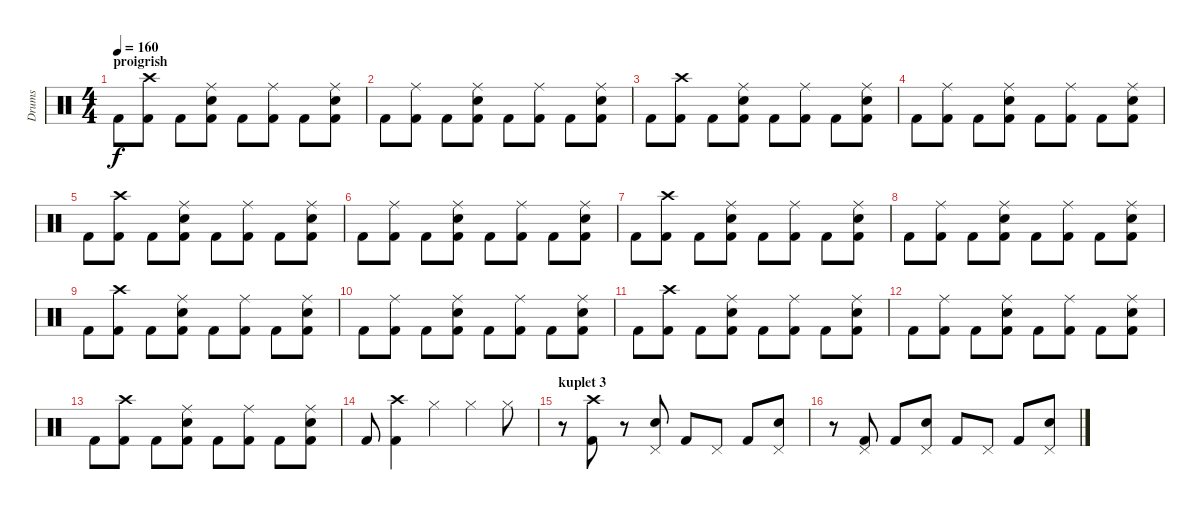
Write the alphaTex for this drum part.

\track ("Drums" "Drums") {instrument percussion}
\staff {score}
\articulation defaults
\ts (4 4)
\section ("" "proigrish")
\tempo 160
\clef neutral
\ks c "Kick (hit) 2".8{dy f}
("Kick (hit) 2" "Crash high (hit)").8 "Kick (hit) 2".8 ("Snare (hit) 2" "Kick (hit) 2" "Ride (middle)").8 "Kick (hit) 2".8 ("Kick (hit) 2" "Ride (middle)").8 "Kick (hit) 2".8 ("Snare (hit) 2" "Kick (hit) 2" "Ride (middle)").8 |
"Kick (hit) 2".8 ("Kick (hit) 2" "Ride (middle)").8 "Kick (hit) 2".8 ("Snare (hit) 2" "Kick (hit) 2" "Ride (middle)").8 "Kick (hit) 2".8 ("Kick (hit) 2" "Ride (middle)").8 "Kick (hit) 2".8 ("Snare (hit) 2" "Kick (hit) 2" "Ride (middle)").8 |
"Kick (hit) 2".8 ("Kick (hit) 2" "Crash high (hit)").8 "Kick (hit) 2".8 ("Snare (hit) 2" "Kick (hit) 2" "Ride (middle)").8 "Kick (hit) 2".8 ("Kick (hit) 2" "Ride (middle)").8 "Kick (hit) 2".8 ("Snare (hit) 2" "Kick (hit) 2" "Ride (middle)").8 |
"Kick (hit) 2".8 ("Kick (hit) 2" "Ride (middle)").8 "Kick (hit) 2".8 ("Snare (hit) 2" "Kick (hit) 2" "Ride (middle)").8 "Kick (hit) 2".8 ("Kick (hit) 2" "Ride (middle)").8 "Kick (hit) 2".8 ("Snare (hit) 2" "Kick (hit) 2" "Ride (middle)").8 |
"Kick (hit) 2".8 ("Kick (hit) 2" "Crash high (hit)").8 "Kick (hit) 2".8 ("Snare (hit) 2" "Kick (hit) 2" "Ride (middle)").8 "Kick (hit) 2".8 ("Kick (hit) 2" "Ride (middle)").8 "Kick (hit) 2".8 ("Snare (hit) 2" "Kick (hit) 2" "Ride (middle)").8 |
"Kick (hit) 2".8 ("Kick (hit) 2" "Ride (middle)").8 "Kick (hit) 2".8 ("Snare (hit) 2" "Kick (hit) 2" "Ride (middle)").8 "Kick (hit) 2".8 ("Kick (hit) 2" "Ride (middle)").8 "Kick (hit) 2".8 ("Snare (hit) 2" "Kick (hit) 2" "Ride (middle)").8 |
"Kick (hit) 2".8 ("Kick (hit) 2" "Crash high (hit)").8 "Kick (hit) 2".8 ("Snare (hit) 2" "Kick (hit) 2" "Ride (middle)").8 "Kick (hit) 2".8 ("Kick (hit) 2" "Ride (middle)").8 "Kick (hit) 2".8 ("Snare (hit) 2" "Kick (hit) 2" "Ride (middle)").8 |
"Kick (hit) 2".8 ("Kick (hit) 2" "Ride (middle)").8 "Kick (hit) 2".8 ("Snare (hit) 2" "Kick (hit) 2" "Ride (middle)").8 "Kick (hit) 2".8 ("Kick (hit) 2" "Ride (middle)").8 "Kick (hit) 2".8 ("Snare (hit) 2" "Kick (hit) 2" "Ride (middle)").8 |
"Kick (hit) 2".8 ("Kick (hit) 2" "Crash high (hit)").8 "Kick (hit) 2".8 ("Snare (hit) 2" "Kick (hit) 2" "Ride (middle)").8 "Kick (hit) 2".8 ("Kick (hit) 2" "Ride (middle)").8 "Kick (hit) 2".8 ("Snare (hit) 2" "Kick (hit) 2" "Ride (middle)").8 |
"Kick (hit) 2".8 ("Kick (hit) 2" "Ride (middle)").8 "Kick (hit) 2".8 ("Snare (hit) 2" "Kick (hit) 2" "Ride (middle)").8 "Kick (hit) 2".8 ("Kick (hit) 2" "Ride (middle)").8 "Kick (hit) 2".8 ("Snare (hit) 2" "Kick (hit) 2" "Ride (middle)").8 |
"Kick (hit) 2".8 ("Kick (hit) 2" "Crash high (hit)").8 "Kick (hit) 2".8 ("Snare (hit) 2" "Kick (hit) 2" "Ride (middle)").8 "Kick (hit) 2".8 ("Kick (hit) 2" "Ride (middle)").8 "Kick (hit) 2".8 ("Snare (hit) 2" "Kick (hit) 2" "Ride (middle)").8 |
"Kick (hit) 2".8 ("Kick (hit) 2" "Ride (middle)").8 "Kick (hit) 2".8 ("Snare (hit) 2" "Kick (hit) 2" "Ride (middle)").8 "Kick (hit) 2".8 ("Kick (hit) 2" "Ride (middle)").8 "Kick (hit) 2".8 ("Snare (hit) 2" "Kick (hit) 2" "Ride (middle)").8 |
"Kick (hit) 2".8 ("Kick (hit) 2" "Crash high (hit)").8 "Kick (hit) 2".8 ("Snare (hit) 2" "Kick (hit) 2" "Ride (middle)").8 "Kick (hit) 2".8 ("Kick (hit) 2" "Ride (middle)").8 "Kick (hit) 2".8 ("Snare (hit) 2" "Kick (hit) 2" "Ride (middle)").8 |
"Kick (hit) 2".8 ("Kick (hit) 2" "Crash high (hit)").4 "Hi-Hat (closed)".4 "Hi-Hat (closed)".4 "Hi-Hat (closed)".8 |
\section ("" "kuplet 3")
r.8 ("Kick (hit) 2" "Crash high (hit)").8 r.8 ("Snare (hit) 2" "Pedal Hi-Hat (hit)").8 "Kick (hit) 2".8 "Pedal Hi-Hat (hit)".8 "Kick (hit) 2".8 ("Snare (hit) 2" "Pedal Hi-Hat (hit)").8 |
r.8 ("Kick (hit) 2" "Pedal Hi-Hat (hit)").8 "Kick (hit) 2".8 ("Snare (hit) 2" "Pedal Hi-Hat (hit)").8 "Kick (hit) 2".8 "Pedal Hi-Hat (hit)".8 "Kick (hit) 2".8 ("Snare (hit) 2" "Pedal Hi-Hat (hit)").8
